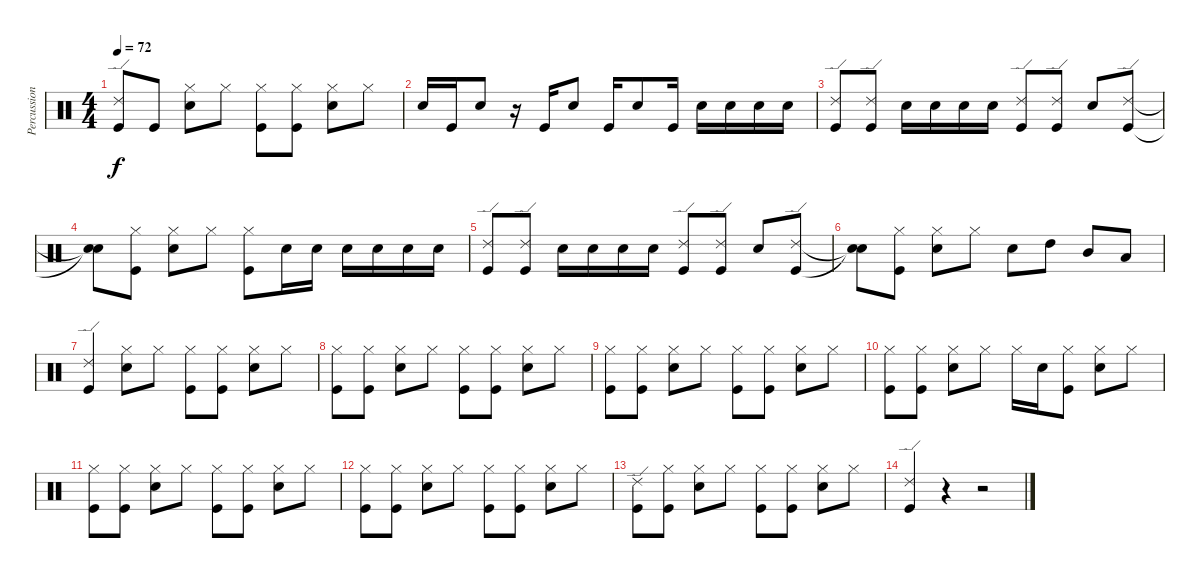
\track ("Percussions" "Percussion") {instrument percussion}
\staff {score}
\articulation defaults
\ts (4 4)
\tempo 72
\clef neutral
\ks c
("Ride (edge) 2" "Kick (hit)").8{dy f} "Kick (hit)".8 ("Hi-Hat (closed)" "Snare (hit) 2").8 "Hi-Hat (closed)".8 ("Hi-Hat (closed)" "Kick (hit)").8 ("Hi-Hat (closed)" "Kick (hit)").8 ("Hi-Hat (closed)" "Snare (hit) 2").8 "Hi-Hat (closed)".8 |
"Snare (hit) 2".16 "Kick (hit)".16 "Snare (hit) 2".8 r.16 "Kick (hit)".16 "Snare (hit) 2".8 "Kick (hit)".16 "Snare (hit) 2".8 "Kick (hit)".16 "Snare (hit) 2".16 "Snare (hit) 2".16 "Snare (hit) 2".16 "Snare (hit) 2".16 |
("Ride (edge) 2" "Kick (hit)").8 ("Ride (edge) 2" "Kick (hit)").8 "Snare (hit) 2".16 "Snare (hit) 2".16 "Snare (hit) 2".16 "Snare (hit) 2".16 ("Ride (edge) 2" "Kick (hit)").8 ("Ride (edge) 2" "Kick (hit)").8 "Snare (hit) 2".8 ("Ride (edge) 2" "Kick (hit)").8 |
("Snare (hit)"{t} "Snare (hit)"{t}).8 ("Hi-Hat (closed)" "Kick (hit)").8 ("Hi-Hat (closed)" "Snare (hit) 2").8 "Hi-Hat (closed)".8 ("Hi-Hat (closed)" "Kick (hit)").8 "Snare (hit) 2".16 "Snare (hit) 2".16 "Snare (hit) 2".16 "Snare (hit) 2".16 "Snare (hit) 2".16 "Snare (hit) 2".16 |
("Ride (edge) 2" "Kick (hit)").8 ("Ride (edge) 2" "Kick (hit)").8 "Snare (hit) 2".16 "Snare (hit) 2".16 "Snare (hit) 2".16 "Snare (hit) 2".16 ("Ride (edge) 2" "Kick (hit)").8 ("Ride (edge) 2" "Kick (hit)").8 "Snare (hit) 2".8 ("Ride (edge) 2" "Kick (hit)").8 |
("Snare (hit)"{t} "Snare (hit)"{t}).8 ("Hi-Hat (closed)" "Kick (hit)").8 ("Hi-Hat (closed)" "Snare (hit) 2").8 "Hi-Hat (closed)".8 "Snare (hit) 2".8 "High Tom (hit)".8 "Mid Tom (hit)".8 "Low Tom (hit)".8 |
("Ride (edge) 2" "Kick (hit)").4 ("Hi-Hat (closed)" "Snare (hit) 2").8 "Hi-Hat (closed)".8 ("Hi-Hat (closed)" "Kick (hit)").8 ("Hi-Hat (closed)" "Kick (hit)").8 ("Hi-Hat (closed)" "Snare (hit) 2").8 "Hi-Hat (closed)".8 |
("Hi-Hat (closed)" "Kick (hit)").8 ("Hi-Hat (closed)" "Kick (hit)").8 ("Hi-Hat (closed)" "Snare (hit) 2").8 "Hi-Hat (closed)".8 ("Hi-Hat (closed)" "Kick (hit)").8 ("Hi-Hat (closed)" "Kick (hit)").8 ("Hi-Hat (closed)" "Snare (hit) 2").8 "Hi-Hat (closed)".8 |
("Hi-Hat (closed)" "Kick (hit)").8 ("Hi-Hat (closed)" "Kick (hit)").8 ("Hi-Hat (closed)" "Snare (hit) 2").8 "Hi-Hat (closed)".8 ("Hi-Hat (closed)" "Kick (hit)").8 ("Hi-Hat (closed)" "Kick (hit)").8 ("Hi-Hat (closed)" "Snare (hit) 2").8 "Hi-Hat (closed)".8 |
("Hi-Hat (closed)" "Kick (hit)").8 ("Hi-Hat (closed)" "Kick (hit)").8 ("Hi-Hat (closed)" "Snare (hit) 2").8 "Hi-Hat (closed)".8 "Hi-Hat (closed)".16 "Snare (hit) 2".16 ("Hi-Hat (closed)" "Kick (hit)").8 ("Hi-Hat (closed)" "Snare (hit) 2").8 "Hi-Hat (closed)".8 |
("Hi-Hat (closed)" "Kick (hit)").8 ("Hi-Hat (closed)" "Kick (hit)").8 ("Hi-Hat (closed)" "Snare (hit) 2").8 "Hi-Hat (closed)".8 ("Hi-Hat (closed)" "Kick (hit)").8 ("Hi-Hat (closed)" "Kick (hit)").8 ("Hi-Hat (closed)" "Snare (hit) 2").8 "Hi-Hat (closed)".8 |
("Hi-Hat (closed)" "Kick (hit)").8 ("Hi-Hat (closed)" "Kick (hit)").8 ("Hi-Hat (closed)" "Snare (hit) 2").8 "Hi-Hat (closed)".8 ("Hi-Hat (closed)" "Kick (hit)").8 ("Hi-Hat (closed)" "Kick (hit)").8 ("Hi-Hat (closed)" "Snare (hit) 2").8 "Hi-Hat (closed)".8 |
("Ride (edge) 2" "Kick (hit)").8 ("Hi-Hat (closed)" "Kick (hit)").8 ("Hi-Hat (closed)" "Snare (hit) 2").8 "Hi-Hat (closed)".8 ("Hi-Hat (closed)" "Kick (hit)").8 ("Hi-Hat (closed)" "Kick (hit)").8 ("Hi-Hat (closed)" "Snare (hit) 2").8 "Hi-Hat (closed)".8 |
("Ride (edge) 2" "Kick (hit)").4 r.4 r.2
